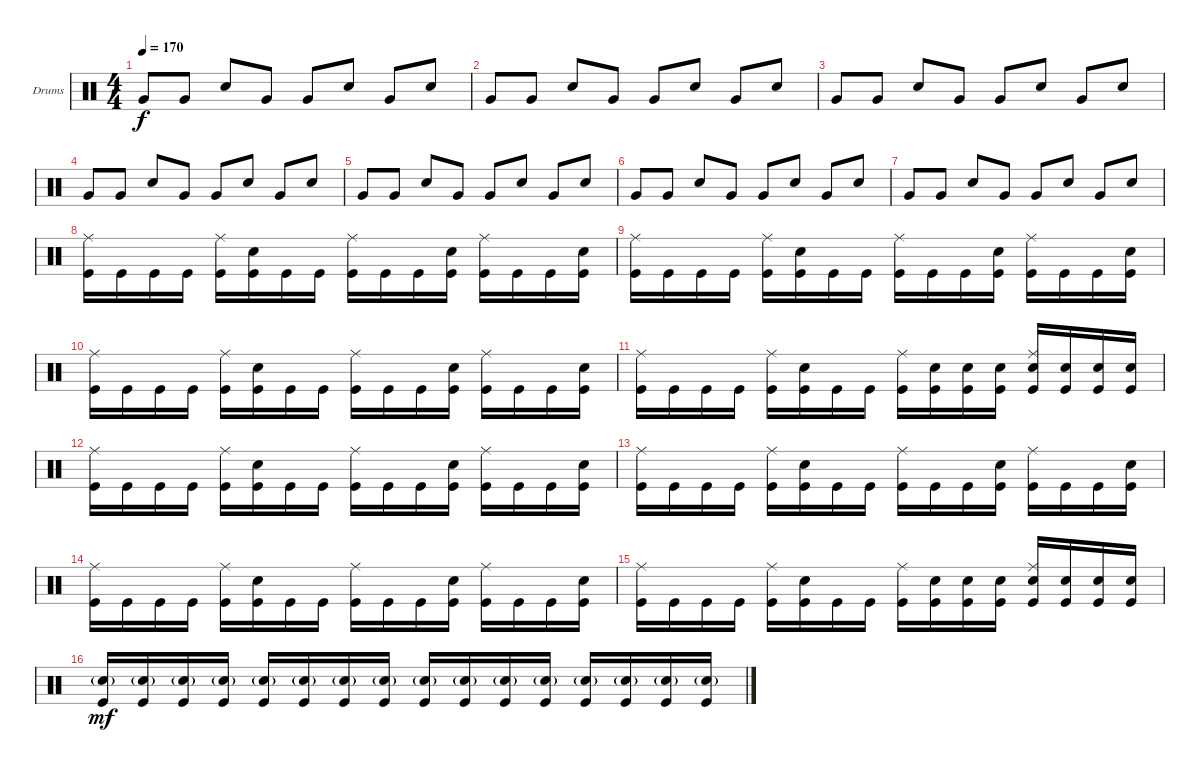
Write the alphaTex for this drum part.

\defaultSystemsLayout 4
\bracketExtendMode groupsimilarinstruments
\firstSystemTrackNameOrientation horizontal
\otherSystemsTrackNameOrientation horizontal
\track ("Drumkit" "Drums") {instrument percussion}
\staff {score}
\articulation defaults
\ts (4 4)
\tempo 170
\clef neutral
\scale
0.333333
\ks c "Very Low Tom (hit)".8{dy f} "Very Low Tom (hit)".8 "Snare (hit) 2".8 "Very Low Tom (hit)".8 "Very Low Tom (hit)".8 "Snare (hit) 2".8 "Very Low Tom (hit)".8 "Snare (hit) 2".8
|
\scale
0.333333 "Very Low Tom (hit)".8 "Very Low Tom (hit)".8 "Snare (hit) 2".8 "Very Low Tom (hit)".8 "Very Low Tom (hit)".8 "Snare (hit) 2".8 "Very Low Tom (hit)".8 "Snare (hit) 2".8 |
\scale
0.333333 "Very Low Tom (hit)".8 "Very Low Tom (hit)".8 "Snare (hit) 2".8 "Very Low Tom (hit)".8 "Very Low Tom (hit)".8 "Snare (hit) 2".8 "Very Low Tom (hit)".8 "Snare (hit) 2".8 |
\scale
0.333333 "Very Low Tom (hit)".8 "Very Low Tom (hit)".8 "Snare (hit) 2".8 "Very Low Tom (hit)".8 "Very Low Tom (hit)".8 "Snare (hit) 2".8 "Very Low Tom (hit)".8 "Snare (hit) 2".8 |
\scale
0.333333 "Very Low Tom (hit)".8 "Very Low Tom (hit)".8 "Snare (hit) 2".8 "Very Low Tom (hit)".8 "Very Low Tom (hit)".8 "Snare (hit) 2".8 "Very Low Tom (hit)".8 "Snare (hit) 2".8 |
\scale
0.333333 "Very Low Tom (hit)".8 "Very Low Tom (hit)".8 "Snare (hit) 2".8 "Very Low Tom (hit)".8 "Very Low Tom (hit)".8 "Snare (hit) 2".8 "Very Low Tom (hit)".8 "Snare (hit) 2".8 |
\scale
0.333333 "Very Low Tom (hit)".8 "Very Low Tom (hit)".8 "Snare (hit) 2".8 "Very Low Tom (hit)".8 "Very Low Tom (hit)".8 "Snare (hit) 2".8 "Very Low Tom (hit)".8 "Snare (hit) 2".8 |
\scale
0.333333 ("Ride (middle)" "Kick (hit)").16 "Kick (hit)".16 "Kick (hit)".16 "Kick (hit)".16 ("Ride (middle)" "Kick (hit)").16 ("Snare (hit) 2" "Kick (hit)").16 "Kick (hit)".16 "Kick (hit)".16 ("Ride (middle)" "Kick (hit)").16 "Kick (hit)".16 "Kick (hit)".16 ("Snare (hit) 2" "Kick (hit)").16 ("Ride (middle)" "Kick (hit)").16 "Kick (hit)".16 "Kick (hit)".16 ("Snare (hit) 2" "Kick (hit)").16 |
\scale
0.333333 ("Ride (middle)" "Kick (hit)").16 "Kick (hit)".16 "Kick (hit)".16 "Kick (hit)".16 ("Ride (middle)" "Kick (hit)").16 ("Snare (hit) 2" "Kick (hit)").16 "Kick (hit)".16 "Kick (hit)".16 ("Ride (middle)" "Kick (hit)").16 "Kick (hit)".16 "Kick (hit)".16 ("Snare (hit) 2" "Kick (hit)").16 ("Ride (middle)" "Kick (hit)").16 "Kick (hit)".16 "Kick (hit)".16 ("Snare (hit) 2" "Kick (hit)").16 |
\scale
0.333333 ("Ride (middle)" "Kick (hit)").16 "Kick (hit)".16 "Kick (hit)".16 "Kick (hit)".16 ("Ride (middle)" "Kick (hit)").16 ("Snare (hit) 2" "Kick (hit)").16 "Kick (hit)".16 "Kick (hit)".16 ("Ride (middle)" "Kick (hit)").16 "Kick (hit)".16 "Kick (hit)".16 ("Snare (hit) 2" "Kick (hit)").16 ("Ride (middle)" "Kick (hit)").16 "Kick (hit)".16 "Kick (hit)".16 ("Snare (hit) 2" "Kick (hit)").16 |
\scale
0.333333 ("Ride (middle)" "Kick (hit)").16 "Kick (hit)".16 "Kick (hit)".16 "Kick (hit)".16 ("Ride (middle)" "Kick (hit)").16 ("Snare (hit) 2" "Kick (hit)").16 "Kick (hit)".16 "Kick (hit)".16 ("Ride (middle)" "Kick (hit)").16 ("Kick (hit)" "Snare (hit) 2").16 ("Kick (hit)" "Snare (hit) 2").16 ("Snare (hit) 2" "Kick (hit)").16 ("Ride (middle)" "Kick (hit)" "Snare (hit) 2").16 ("Kick (hit)" "Snare (hit) 2").16 ("Kick (hit)" "Snare (hit) 2").16 ("Snare (hit) 2" "Kick (hit)").16 |
\scale
0.333333 ("Ride (middle)" "Kick (hit)").16 "Kick (hit)".16 "Kick (hit)".16 "Kick (hit)".16 ("Ride (middle)" "Kick (hit)").16 ("Snare (hit) 2" "Kick (hit)").16 "Kick (hit)".16 "Kick (hit)".16 ("Ride (middle)" "Kick (hit)").16 "Kick (hit)".16 "Kick (hit)".16 ("Snare (hit) 2" "Kick (hit)").16 ("Ride (middle)" "Kick (hit)").16 "Kick (hit)".16 "Kick (hit)".16 ("Snare (hit) 2" "Kick (hit)").16 |
\scale
0.333333 ("Ride (middle)" "Kick (hit)").16 "Kick (hit)".16 "Kick (hit)".16 "Kick (hit)".16 ("Ride (middle)" "Kick (hit)").16 ("Snare (hit) 2" "Kick (hit)").16 "Kick (hit)".16 "Kick (hit)".16 ("Ride (middle)" "Kick (hit)").16 "Kick (hit)".16 "Kick (hit)".16 ("Snare (hit) 2" "Kick (hit)").16 ("Ride (middle)" "Kick (hit)").16 "Kick (hit)".16 "Kick (hit)".16 ("Snare (hit) 2" "Kick (hit)").16 |
\scale
0.333333 ("Ride (middle)" "Kick (hit)").16 "Kick (hit)".16 "Kick (hit)".16 "Kick (hit)".16 ("Ride (middle)" "Kick (hit)").16 ("Snare (hit) 2" "Kick (hit)").16 "Kick (hit)".16 "Kick (hit)".16 ("Ride (middle)" "Kick (hit)").16 "Kick (hit)".16 "Kick (hit)".16 ("Snare (hit) 2" "Kick (hit)").16 ("Ride (middle)" "Kick (hit)").16 "Kick (hit)".16 "Kick (hit)".16 ("Snare (hit) 2" "Kick (hit)").16 |
\scale
0.333333 ("Ride (middle)" "Kick (hit)").16 "Kick (hit)".16 "Kick (hit)".16 "Kick (hit)".16 ("Ride (middle)" "Kick (hit)").16 ("Snare (hit) 2" "Kick (hit)").16 "Kick (hit)".16 "Kick (hit)".16 ("Ride (middle)" "Kick (hit)").16 ("Kick (hit)" "Snare (hit) 2").16 ("Kick (hit)" "Snare (hit) 2").16 ("Snare (hit) 2" "Kick (hit)").16 ("Ride (middle)" "Kick (hit)" "Snare (hit) 2").16 ("Kick (hit)" "Snare (hit) 2").16 ("Kick (hit)" "Snare (hit) 2").16 ("Snare (hit) 2" "Kick (hit)").16 |
\scale
0.333333 ("Snare (hit) 2"{g} "Kick (hit)").16{dy mf} ("Snare (hit) 2"{g} "Kick (hit)").16 ("Snare (hit) 2"{g} "Kick (hit)").16 ("Snare (hit) 2"{g} "Kick (hit)").16 ("Snare (hit) 2"{g} "Kick (hit)").16 ("Snare (hit) 2"{g} "Kick (hit)").16 ("Snare (hit) 2"{g} "Kick (hit)").16 ("Snare (hit) 2"{g} "Kick (hit)").16 ("Snare (hit) 2"{g} "Kick (hit)").16 ("Snare (hit) 2"{g} "Kick (hit)").16 ("Snare (hit) 2"{g} "Kick (hit)").16 ("Snare (hit) 2"{g} "Kick (hit)").16 ("Snare (hit) 2"{g} "Kick (hit)").16 ("Snare (hit) 2"{g} "Kick (hit)").16 ("Snare (hit) 2"{g} "Kick (hit)").16 ("Snare (hit) 2"{g} "Kick (hit)").16
